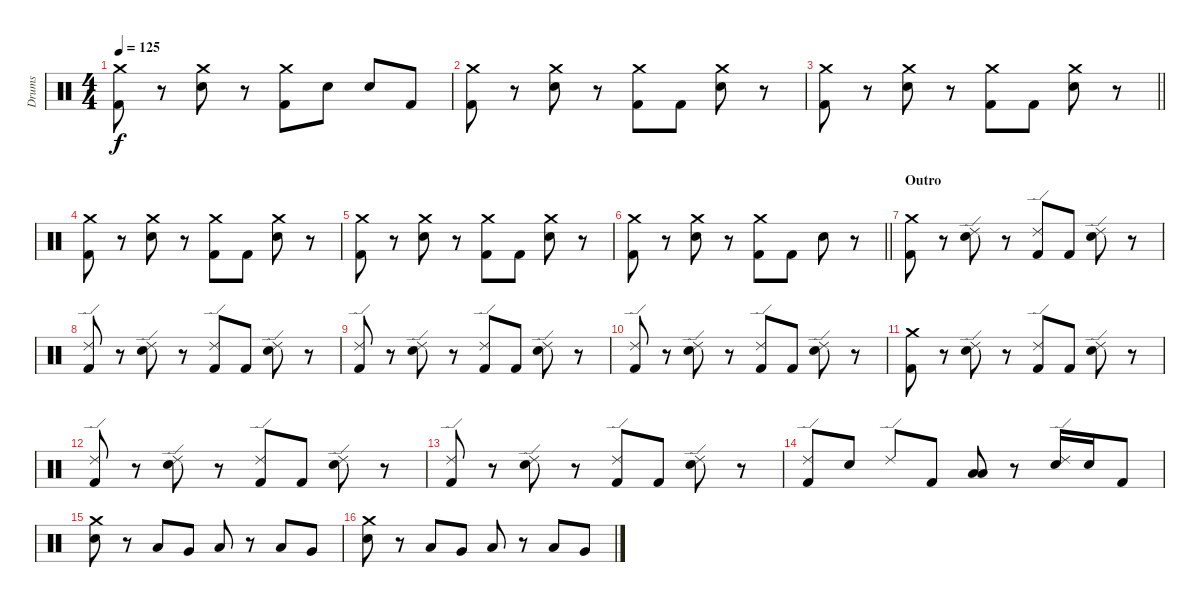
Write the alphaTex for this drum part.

\track ("Drums" "Drums") {instrument percussion}
\staff {score}
\articulation defaults
\ts (4 4)
\tempo 125
\clef neutral
\ks c
("Crash medium (hit)" "Kick (hit) 2").8{dy f} r.8 ("Crash medium (hit)" "Electric Snare (hit)").8 r.8 ("Crash medium (hit)" "Kick (hit) 2").8 "Electric Snare (hit)".8 "Electric Snare (hit)".8 "Kick (hit) 2".8 |
("Crash medium (hit)" "Kick (hit) 2").8 r.8 ("Crash medium (hit)" "Electric Snare (hit)").8 r.8 ("Crash medium (hit)" "Kick (hit) 2").8 "Kick (hit) 2".8 ("Crash medium (hit)" "Electric Snare (hit)").8 r.8 |
\barLineRight lightlight
("Crash medium (hit)" "Kick (hit) 2").8 r.8 ("Crash medium (hit)" "Electric Snare (hit)").8 r.8 ("Crash medium (hit)" "Kick (hit) 2").8 "Kick (hit) 2".8 ("Crash medium (hit)" "Electric Snare (hit)").8 r.8 |
("Crash medium (hit)" "Kick (hit) 2").8 r.8 ("Crash medium (hit)" "Electric Snare (hit)").8 r.8 ("Crash medium (hit)" "Kick (hit) 2").8 "Kick (hit) 2".8 ("Crash medium (hit)" "Electric Snare (hit)").8 r.8 |
("Crash medium (hit)" "Kick (hit) 2").8 r.8 ("Crash medium (hit)" "Electric Snare (hit)").8 r.8 ("Crash medium (hit)" "Kick (hit) 2").8 "Kick (hit) 2".8 ("Crash medium (hit)" "Electric Snare (hit)").8 r.8 |
\barLineRight lightlight
("Crash medium (hit)" "Kick (hit) 2").8 r.8 ("Crash medium (hit)" "Electric Snare (hit)").8 r.8 ("Crash medium (hit)" "Kick (hit) 2").8 "Kick (hit) 2".8 "Electric Snare (hit)".8 r.8 |
\section ("" "Outro")
("Crash medium (hit)" "Kick (hit) 2").8 r.8 ("Ride (edge) 2" "Electric Snare (hit)").8 r.8 ("Ride (edge) 2" "Kick (hit) 2").8 "Kick (hit) 2".8 ("Ride (edge) 2" "Electric Snare (hit)").8 r.8 |
("Ride (edge) 2" "Kick (hit) 2").8 r.8 ("Ride (edge) 2" "Electric Snare (hit)").8 r.8 ("Ride (edge) 2" "Kick (hit) 2").8 "Kick (hit) 2".8 ("Ride (edge) 2" "Electric Snare (hit)").8 r.8 |
("Ride (edge) 2" "Kick (hit) 2").8 r.8 ("Ride (edge) 2" "Electric Snare (hit)").8 r.8 ("Ride (edge) 2" "Kick (hit) 2").8 "Kick (hit) 2".8 ("Ride (edge) 2" "Electric Snare (hit)").8 r.8 |
("Ride (edge) 2" "Kick (hit) 2").8 r.8 ("Ride (edge) 2" "Electric Snare (hit)").8 r.8 ("Ride (edge) 2" "Kick (hit) 2").8 "Kick (hit) 2".8 ("Ride (edge) 2" "Electric Snare (hit)").8 r.8 |
("Crash medium (hit)" "Kick (hit) 2").8 r.8 ("Ride (edge) 2" "Electric Snare (hit)").8 r.8 ("Ride (edge) 2" "Kick (hit) 2").8 "Kick (hit) 2".8 ("Ride (edge) 2" "Electric Snare (hit)").8 r.8 |
("Ride (edge) 2" "Kick (hit) 2").8 r.8 ("Ride (edge) 2" "Electric Snare (hit)").8 r.8 ("Ride (edge) 2" "Kick (hit) 2").8 "Kick (hit) 2".8 ("Ride (edge) 2" "Electric Snare (hit)").8 r.8 |
("Ride (edge) 2" "Kick (hit) 2").8 r.8 ("Ride (edge) 2" "Electric Snare (hit)").8 r.8 ("Ride (edge) 2" "Kick (hit) 2").8 "Kick (hit) 2".8 ("Ride (edge) 2" "Electric Snare (hit)").8 r.8 |
("Ride (edge) 2" "Kick (hit) 2").8 "Electric Snare (hit)".8 "Ride (edge) 2".8 "Kick (hit) 2".8 ("Low Tom (hit)" "Low Tom (hit)").8 r.8 ("Ride (edge) 2" "Electric Snare (hit)").16 "Electric Snare (hit)".16 "Kick (hit) 2".8 |
("Crash medium (hit)" "Electric Snare (hit)").8 r.8 "Low Tom (hit)".8 "Very Low Tom (hit)".8 "Low Tom (hit)".8 r.8 "Low Tom (hit)".8 "Very Low Tom (hit)".8 |
("Crash medium (hit)" "Electric Snare (hit)").8 r.8 "Low Tom (hit)".8 "Very Low Tom (hit)".8 "Low Tom (hit)".8 r.8 "Low Tom (hit)".8 "Very Low Tom (hit)".8
